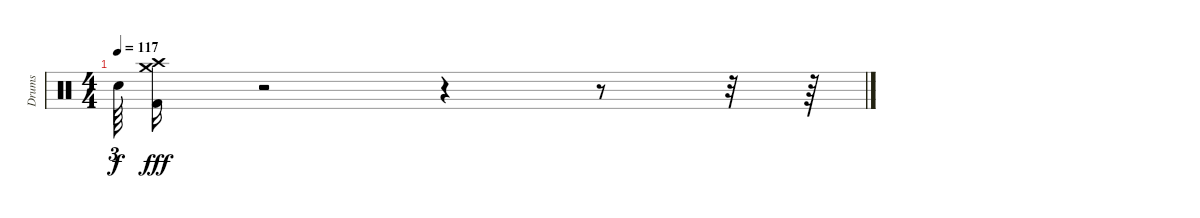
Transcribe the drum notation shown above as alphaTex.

\track ("Drums" "Drums") {instrument percussion}
\staff {score}
\articulation defaults
\ts (4 4)
\tempo 117
\clef neutral
\ks c "Snare (hit)"{t}.64{tu (3 2) dy f}
("Kick (hit) 2" "Crash high (hit)" "Crash medium (hit)").16{dy fff} r.2 r.4 r.8 r.32 r.64
